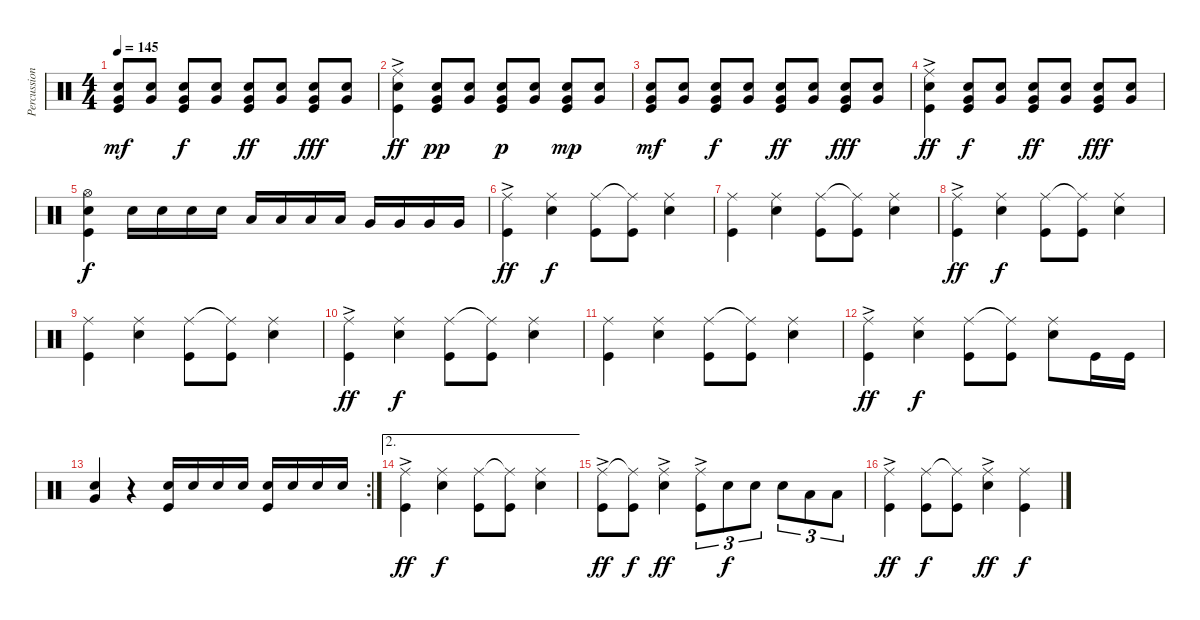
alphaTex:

\track ("Percussion" "Percussion") {instrument percussion}
\staff {score}
\articulation defaults
\ts (4 4)
\tempo 145
\clef neutral
\ks c
("Snare (hit) 2" "Very Low Tom (hit)" "Kick (hit)").8{dy mf} ("Snare (hit) 2" "Very Low Tom (hit)").8 ("Snare (hit) 2" "Very Low Tom (hit)" "Kick (hit)").8{dy f} ("Snare (hit) 2" "Very Low Tom (hit)").8 ("Snare (hit) 2" "Very Low Tom (hit)" "Kick (hit)").8{dy ff} ("Snare (hit) 2" "Very Low Tom (hit)").8 ("Snare (hit) 2" "Very Low Tom (hit)" "Kick (hit)").8{dy fff} ("Snare (hit) 2" "Very Low Tom (hit)").8 |
("Ride (middle)"{ac} "Snare (hit) 2" "Kick (hit)").4{dy ff} ("Snare (hit) 2" "Very Low Tom (hit)" "Kick (hit)").8{dy pp} ("Snare (hit) 2" "Very Low Tom (hit)").8 ("Snare (hit) 2" "Very Low Tom (hit)" "Kick (hit)").8{dy p} ("Snare (hit) 2" "Very Low Tom (hit)").8 ("Snare (hit) 2" "Very Low Tom (hit)" "Kick (hit)").8{dy mp} ("Snare (hit) 2" "Very Low Tom (hit)").8 |
("Snare (hit) 2" "Very Low Tom (hit)" "Kick (hit)").8{dy mf} ("Snare (hit) 2" "Very Low Tom (hit)").8 ("Snare (hit) 2" "Very Low Tom (hit)" "Kick (hit)").8{dy f} ("Snare (hit) 2" "Very Low Tom (hit)").8 ("Snare (hit) 2" "Very Low Tom (hit)" "Kick (hit)").8{dy ff} ("Snare (hit) 2" "Very Low Tom (hit)").8 ("Snare (hit) 2" "Very Low Tom (hit)" "Kick (hit)").8{dy fff} ("Snare (hit) 2" "Very Low Tom (hit)").8 |
("Ride (middle)"{ac} "Snare (hit) 2" "Kick (hit)").4{dy ff} ("Snare (hit) 2" "Very Low Tom (hit)" "Kick (hit)").8{dy f} ("Snare (hit) 2" "Very Low Tom (hit)").8 ("Snare (hit) 2" "Very Low Tom (hit)" "Kick (hit)").8{dy ff} ("Snare (hit) 2" "Very Low Tom (hit)").8 ("Snare (hit) 2" "Very Low Tom (hit)" "Kick (hit)").8{dy fff} ("Snare (hit) 2" "Very Low Tom (hit)").8 |
("Hi-Hat (open)" "Snare (hit) 2" "Kick (hit)").4{dy f} "Snare (hit) 2".16 "Snare (hit) 2".16 "Snare (hit) 2".16 "Snare (hit) 2".16 "Low Tom (hit)".16 "Low Tom (hit)".16 "Low Tom (hit)".16 "Low Tom (hit)".16 "Very Low Tom (hit)".16 "Very Low Tom (hit)".16 "Very Low Tom (hit)".16 "Very Low Tom (hit)".16 |
("Ride (middle)"{ac} "Kick (hit)").4{dy ff} ("Ride (middle)" "Snare (hit) 2").4{dy f} ("Ride (middle)" "Kick (hit)").8 ("Ride (middle)"{t} "Kick (hit)").8 ("Ride (middle)" "Snare (hit) 2").4 |
("Ride (middle)" "Kick (hit)").4 ("Ride (middle)" "Snare (hit) 2").4 ("Ride (middle)" "Kick (hit)").8 ("Ride (middle)"{t} "Kick (hit)").8 ("Ride (middle)" "Snare (hit) 2").4 |
("Ride (middle)"{ac} "Kick (hit)").4{dy ff} ("Ride (middle)" "Snare (hit) 2").4{dy f} ("Ride (middle)" "Kick (hit)").8 ("Ride (middle)"{t} "Kick (hit)").8 ("Ride (middle)" "Snare (hit) 2").4 |
("Ride (middle)" "Kick (hit)").4 ("Ride (middle)" "Snare (hit) 2").4 ("Ride (middle)" "Kick (hit)").8 ("Ride (middle)"{t} "Kick (hit)").8 ("Ride (middle)" "Snare (hit) 2").4 |
("Ride (middle)"{ac} "Kick (hit)").4{dy ff} ("Ride (middle)" "Snare (hit) 2").4{dy f} ("Ride (middle)" "Kick (hit)").8 ("Ride (middle)"{t} "Kick (hit)").8 ("Ride (middle)" "Snare (hit) 2").4 |
("Ride (middle)" "Kick (hit)").4 ("Ride (middle)" "Snare (hit) 2").4 ("Ride (middle)" "Kick (hit)").8 ("Ride (middle)"{t} "Kick (hit)").8 ("Ride (middle)" "Snare (hit) 2").4 |
("Ride (middle)"{ac} "Kick (hit)").4{dy ff} ("Ride (middle)" "Snare (hit) 2").4{dy f} ("Ride (middle)" "Kick (hit)").8 ("Ride (middle)"{t} "Kick (hit)").8 ("Ride (middle)" "Snare (hit) 2").8 "Kick (hit)".16 "Kick (hit)".16 |
\rc 2
("Snare (hit) 2" "Very Low Tom (hit)").4 r.4 ("Snare (hit) 2" "Kick (hit)").16 "Snare (hit) 2".16 "Snare (hit) 2".16 "Snare (hit) 2".16 ("Snare (hit) 2" "Kick (hit)").16 "Snare (hit) 2".16 "Snare (hit) 2".16 "Snare (hit) 2".16 |
\ae 2
("Ride (middle)"{ac} "Kick (hit)").4{dy ff} ("Ride (middle)" "Snare (hit) 2").4{dy f} ("Ride (middle)" "Kick (hit)").8 ("Ride (middle)"{t} "Kick (hit)").8 ("Ride (middle)" "Snare (hit) 2").4 |
("Ride (middle)"{ac} "Kick (hit)").8{dy ff} ("Ride (middle)"{t} "Kick (hit)").8{dy f} ("Ride (middle)"{ac} "Snare (hit) 2").4{dy ff} ("Ride (middle)"{ac} "Kick (hit)").8{tu (3 2)} "Snare (hit) 2".8{tu (3 2) dy f} "Snare (hit) 2".8{tu (3 2)} "Snare (hit) 2".8{tu (3 2)} "Low Tom (hit)".8{tu (3 2)} "Low Tom (hit)".8{tu (3 2)} |
("Ride (middle)"{ac} "Kick (hit)").4{dy ff} ("Ride (middle)" "Kick (hit)").8{dy f} ("Ride (middle)"{t} "Kick (hit)").8 ("Ride (middle)"{ac} "Snare (hit) 2").4{dy ff} ("Ride (middle)" "Kick (hit)").4{dy f}
